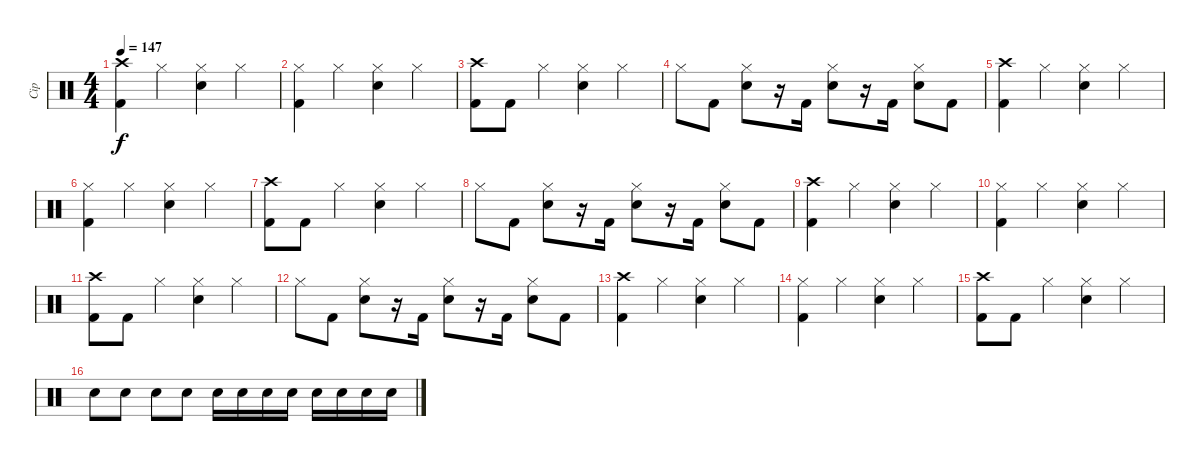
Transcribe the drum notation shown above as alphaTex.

\track ("Cip" "Cip") {instrument percussion}
\staff {score}
\articulation defaults
\ts (4 4)
\tempo 147
\clef neutral
\ks c
("Crash high (hit)" "Kick (hit) 2").4{dy f} "Hi-Hat (closed)".4 ("Hi-Hat (closed)" "Electric Snare (hit)").4 "Hi-Hat (closed)".4 |
("Hi-Hat (closed)" "Kick (hit) 2").4 "Hi-Hat (closed)".4 ("Hi-Hat (closed)" "Electric Snare (hit)").4 "Hi-Hat (closed)".4 |
("Crash high (hit)" "Kick (hit) 2").8 "Kick (hit) 2".8 "Hi-Hat (closed)".4 ("Hi-Hat (closed)" "Electric Snare (hit)").4 "Hi-Hat (closed)".4 |
"Hi-Hat (closed)".8 "Kick (hit) 2".8 ("Hi-Hat (closed)" "Electric Snare (hit)").8 r.16 "Kick (hit) 2".16 ("Hi-Hat (closed)" "Electric Snare (hit)").8 r.16 "Kick (hit) 2".16 ("Hi-Hat (closed)" "Electric Snare (hit)").8 "Kick (hit) 2".8 |
("Crash high (hit)" "Kick (hit) 2").4 "Hi-Hat (closed)".4 ("Hi-Hat (closed)" "Electric Snare (hit)").4 "Hi-Hat (closed)".4 |
("Hi-Hat (closed)" "Kick (hit) 2").4 "Hi-Hat (closed)".4 ("Hi-Hat (closed)" "Electric Snare (hit)").4 "Hi-Hat (closed)".4 |
("Crash high (hit)" "Kick (hit) 2").8 "Kick (hit) 2".8 "Hi-Hat (closed)".4 ("Hi-Hat (closed)" "Electric Snare (hit)").4 "Hi-Hat (closed)".4 |
"Hi-Hat (closed)".8 "Kick (hit) 2".8 ("Hi-Hat (closed)" "Electric Snare (hit)").8 r.16 "Kick (hit) 2".16 ("Hi-Hat (closed)" "Electric Snare (hit)").8 r.16 "Kick (hit) 2".16 ("Hi-Hat (closed)" "Electric Snare (hit)").8 "Kick (hit) 2".8 |
("Crash high (hit)" "Kick (hit) 2").4 "Hi-Hat (closed)".4 ("Hi-Hat (closed)" "Electric Snare (hit)").4 "Hi-Hat (closed)".4 |
("Hi-Hat (closed)" "Kick (hit) 2").4 "Hi-Hat (closed)".4 ("Hi-Hat (closed)" "Electric Snare (hit)").4 "Hi-Hat (closed)".4 |
("Crash high (hit)" "Kick (hit) 2").8 "Kick (hit) 2".8 "Hi-Hat (closed)".4 ("Hi-Hat (closed)" "Electric Snare (hit)").4 "Hi-Hat (closed)".4 |
"Hi-Hat (closed)".8 "Kick (hit) 2".8 ("Hi-Hat (closed)" "Electric Snare (hit)").8 r.16 "Kick (hit) 2".16 ("Hi-Hat (closed)" "Electric Snare (hit)").8 r.16 "Kick (hit) 2".16 ("Hi-Hat (closed)" "Electric Snare (hit)").8 "Kick (hit) 2".8 |
("Crash high (hit)" "Kick (hit) 2").4 "Hi-Hat (closed)".4 ("Hi-Hat (closed)" "Electric Snare (hit)").4 "Hi-Hat (closed)".4 |
("Hi-Hat (closed)" "Kick (hit) 2").4 "Hi-Hat (closed)".4 ("Hi-Hat (closed)" "Electric Snare (hit)").4 "Hi-Hat (closed)".4 |
("Crash high (hit)" "Kick (hit) 2").8 "Kick (hit) 2".8 "Hi-Hat (closed)".4 ("Hi-Hat (closed)" "Electric Snare (hit)").4 "Hi-Hat (closed)".4 |
"Electric Snare (hit)".8 "Electric Snare (hit)".8 "Electric Snare (hit)".8 "Electric Snare (hit)".8 "Electric Snare (hit)".16 "Electric Snare (hit)".16 "Electric Snare (hit)".16 "Electric Snare (hit)".16 "Electric Snare (hit)".16 "Electric Snare (hit)".16 "Electric Snare (hit)".16 "Electric Snare (hit)".16
